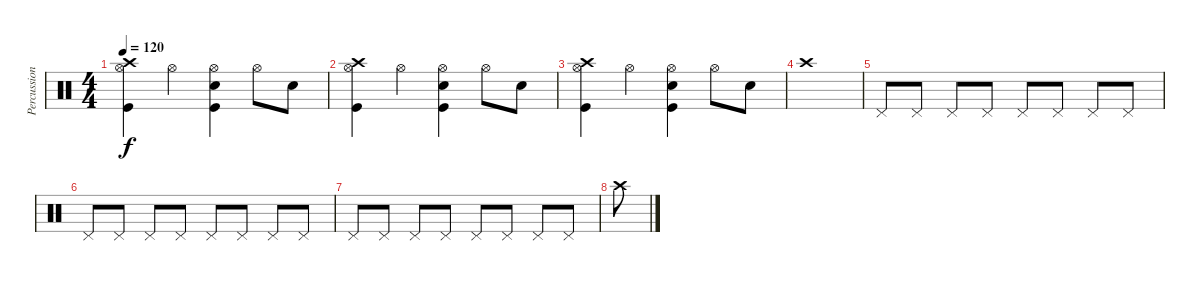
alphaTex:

\track ("Percussion" "Percussion") {instrument percussion}
\staff {score}
\articulation defaults
\ts (4 4)
\tempo 120
\clef neutral
\ks c
("Crash high (hit)" "Hi-Hat (open)" "Kick (hit)").4{dy f} "Hi-Hat (open)".4 ("Hi-Hat (open)" "Electric Snare (hit)" "Kick (hit)").4 "Hi-Hat (open)".8 "Electric Snare (hit)".8 |
("Crash high (hit)" "Hi-Hat (open)" "Kick (hit)").4 "Hi-Hat (open)".4 ("Hi-Hat (open)" "Electric Snare (hit)" "Kick (hit)").4 "Hi-Hat (open)".8 "Electric Snare (hit)".8 |
("Crash high (hit)" "Hi-Hat (open)" "Kick (hit)").4 "Hi-Hat (open)".4 ("Hi-Hat (open)" "Electric Snare (hit)" "Kick (hit)").4 "Hi-Hat (open)".8 "Electric Snare (hit)".8 |
"Crash high (hit)".1 |
"Pedal Hi-Hat (hit)".8 "Pedal Hi-Hat (hit)".8 "Pedal Hi-Hat (hit)".8 "Pedal Hi-Hat (hit)".8 "Pedal Hi-Hat (hit)".8 "Pedal Hi-Hat (hit)".8 "Pedal Hi-Hat (hit)".8 "Pedal Hi-Hat (hit)".8 |
"Pedal Hi-Hat (hit)".8 "Pedal Hi-Hat (hit)".8 "Pedal Hi-Hat (hit)".8 "Pedal Hi-Hat (hit)".8 "Pedal Hi-Hat (hit)".8 "Pedal Hi-Hat (hit)".8 "Pedal Hi-Hat (hit)".8 "Pedal Hi-Hat (hit)".8 |
"Pedal Hi-Hat (hit)".8 "Pedal Hi-Hat (hit)".8 "Pedal Hi-Hat (hit)".8 "Pedal Hi-Hat (hit)".8 "Pedal Hi-Hat (hit)".8 "Pedal Hi-Hat (hit)".8 "Pedal Hi-Hat (hit)".8 "Pedal Hi-Hat (hit)".8 |
"Crash high (hit)".8
